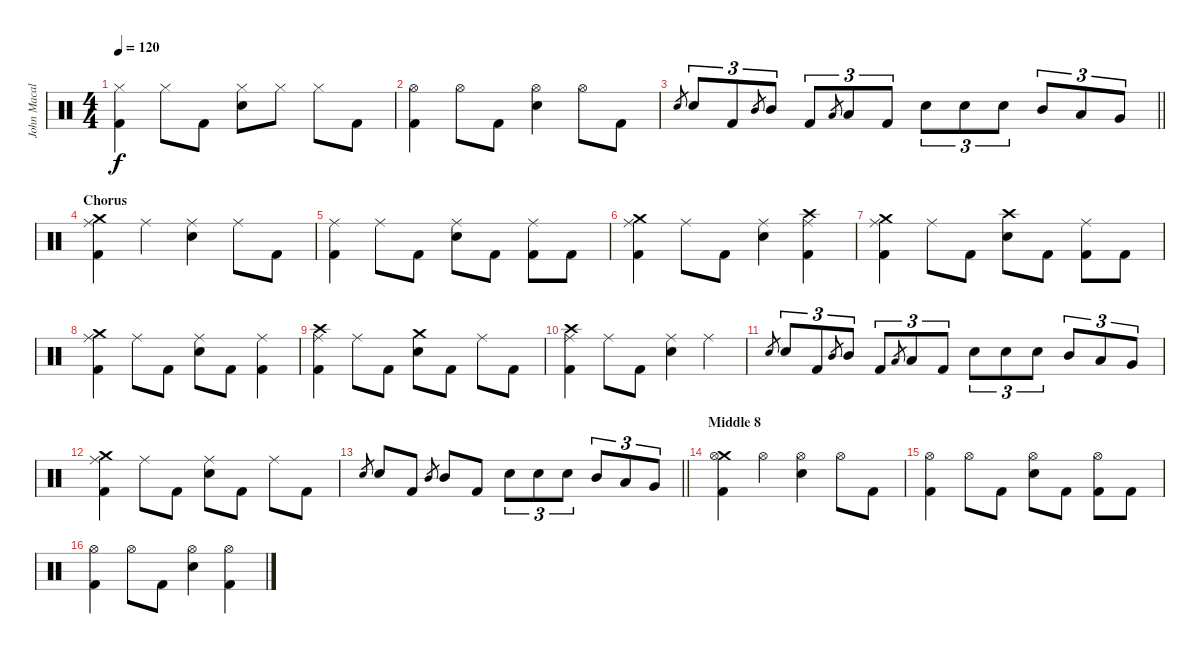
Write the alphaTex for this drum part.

\track ("John Macaluso" "John Macal") {instrument percussion}
\staff {score}
\articulation defaults
\ts (4 4)
\tempo 120
\clef neutral
\ks c
("Hi-Hat (closed)" "Kick (hit) 2").4{dy f} "Hi-Hat (closed)".8 "Kick (hit) 2".8 ("Hi-Hat (closed)" "Snare (hit) 2").8 "Hi-Hat (closed)".8 "Hi-Hat (closed)".8 "Kick (hit) 2".8 |
("Hi-Hat (open)" "Kick (hit) 2").4 "Hi-Hat (open)".8 "Kick (hit) 2".8 ("Hi-Hat (open)" "Snare (hit) 2").4 "Hi-Hat (open)".8 "Kick (hit) 2".8 |
\barLineRight lightlight "Snare (hit) 2".8{gr} "Snare (hit) 2".8{tu (3 2)} "Kick (hit) 2".8{tu (3 2)} "Mid Tom (hit)".8{gr} "Mid Tom (hit)".8{tu (3 2)} "Kick (hit) 2".8{tu (3 2)} "Low Tom (hit)".8{gr} "Low Tom (hit)".8{tu (3 2)} "Kick (hit) 2".8{tu (3 2)} "Snare (hit) 2".8{tu (3 2)} "Snare (hit) 2".8{tu (3 2)} "Snare (hit) 2".8{tu (3 2)} "Mid Tom (hit)".8{tu (3 2)} "Low Tom (hit)".8{tu (3 2)} "Very Low Tom (hit)".8{tu (3 2)}
|
\section ("" "Chorus")
("Crash medium (hit)" "Ride (middle)" "Kick (hit) 2").4 "Ride (middle)".4 ("Ride (middle)" "Snare (hit) 2").4 "Ride (middle)".8 "Kick (hit) 2".8 |
("Ride (middle)" "Kick (hit) 2").4 "Ride (middle)".8 "Kick (hit) 2".8 ("Ride (middle)" "Snare (hit) 2").8 "Kick (hit) 2".8 ("Ride (middle)" "Kick (hit) 2").8 "Kick (hit) 2".8 |
("Crash medium (hit)" "Ride (middle)" "Kick (hit) 2").4 "Ride (middle)".8 "Kick (hit) 2".8 ("Ride (middle)" "Snare (hit) 2").4 ("Crash high (hit)" "Ride (middle)" "Kick (hit) 2").4 |
("Crash medium (hit)" "Ride (middle)" "Kick (hit) 2").4 "Ride (middle)".8 "Kick (hit) 2".8 ("Crash high (hit)" "Snare (hit) 2").8 "Kick (hit) 2".8 ("Ride (middle)" "Kick (hit) 2").8 "Kick (hit) 2".8 |
("Crash medium (hit)" "Ride (middle)" "Kick (hit) 2").4 "Ride (middle)".8 "Kick (hit) 2".8 ("Ride (middle)" "Snare (hit) 2").8 "Kick (hit) 2".8 ("Ride (middle)" "Kick (hit) 2").4 |
("Crash high (hit)" "Ride (middle)" "Kick (hit) 2").4 "Ride (middle)".8 "Kick (hit) 2".8 ("Crash medium (hit)" "Snare (hit) 2").8 "Kick (hit) 2".8 "Ride (middle)".8 "Kick (hit) 2".8 |
("Crash high (hit)" "Ride (middle)" "Kick (hit) 2").4 "Ride (middle)".8 "Kick (hit) 2".8 ("Ride (middle)" "Snare (hit) 2").4 "Ride (middle)".4 |
"Snare (hit) 2".8{gr} "Snare (hit) 2".8{tu (3 2)} "Kick (hit) 2".8{tu (3 2)} "Mid Tom (hit)".8{gr} "Mid Tom (hit)".8{tu (3 2)} "Kick (hit) 2".8{tu (3 2)} "Low Tom (hit)".8{gr} "Low Tom (hit)".8{tu (3 2)} "Kick (hit) 2".8{tu (3 2)} "Snare (hit) 2".8{tu (3 2)} "Snare (hit) 2".8{tu (3 2)} "Snare (hit) 2".8{tu (3 2)} "Mid Tom (hit)".8{tu (3 2)} "Low Tom (hit)".8{tu (3 2)} "Very Low Tom (hit)".8{tu (3 2)} |
("Crash medium (hit)" "Ride (middle)" "Kick (hit) 2").4 "Ride (middle)".8 "Kick (hit) 2".8 ("Ride (middle)" "Snare (hit) 2").8 "Kick (hit) 2".8 "Ride (middle)".8 "Kick (hit) 2".8 |
\barLineRight lightlight "Snare (hit) 2".8{gr} "Snare (hit) 2".8 "Kick (hit) 2".8 "Mid Tom (hit)".8{gr} "Mid Tom (hit)".8 "Kick (hit) 2".8 "Snare (hit) 2".8{tu (3 2)} "Snare (hit) 2".8{tu (3 2)} "Snare (hit) 2".8{tu (3 2)} "Mid Tom (hit)".8{tu (3 2)} "Low Tom (hit)".8{tu (3 2)} "Very Low Tom (hit)".8{tu (3 2)}
|
\section ("" "Middle 8")
("Crash medium (hit)" "Hi-Hat (open)" "Kick (hit) 2").4 "Hi-Hat (open)".4 ("Hi-Hat (open)" "Snare (hit) 2").4 "Hi-Hat (open)".8 "Kick (hit) 2".8 |
("Hi-Hat (open)" "Kick (hit) 2").4 "Hi-Hat (open)".8 "Kick (hit) 2".8 ("Hi-Hat (open)" "Snare (hit) 2").8 "Kick (hit) 2".8 ("Hi-Hat (open)" "Kick (hit) 2").8 "Kick (hit) 2".8 |
("Hi-Hat (open)" "Kick (hit) 2").4 "Hi-Hat (open)".8 "Kick (hit) 2".8 ("Hi-Hat (open)" "Snare (hit) 2").4 ("Hi-Hat (open)" "Kick (hit) 2").4
